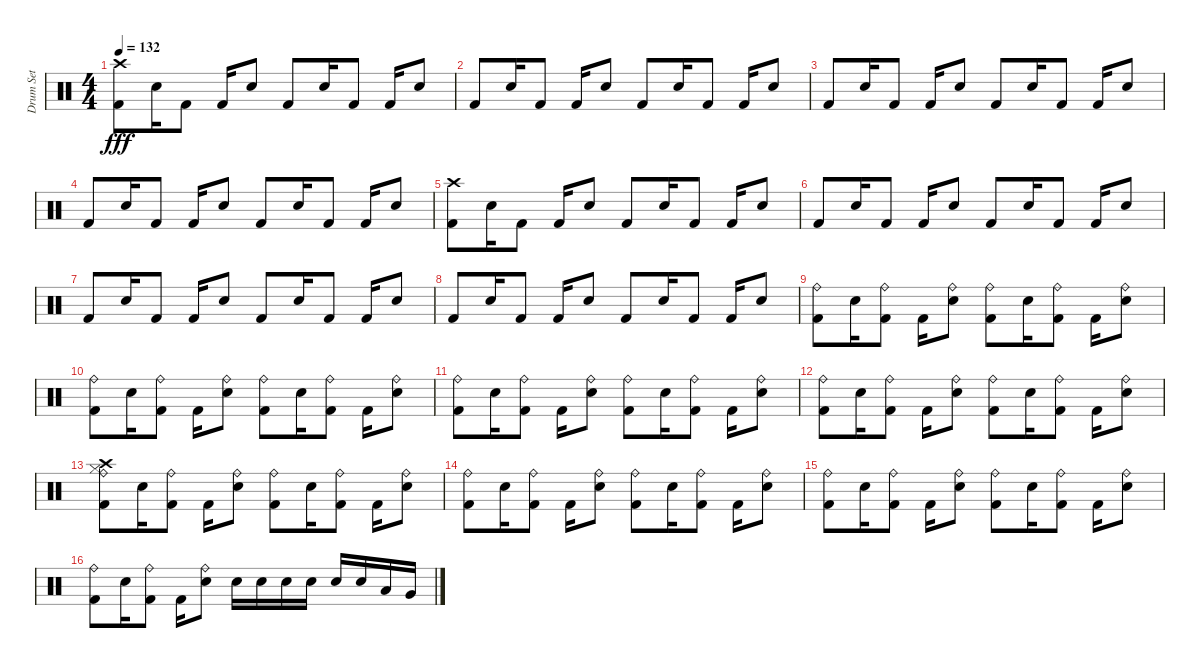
\track ("Drum Set" "Drum Set") {instrument percussion}
\staff {score}
\articulation defaults
\ts (4 4)
\tempo 132
\clef neutral
\ks c
("Kick (hit) 2" "Crash high (hit)").8{dy fff} "Electric Snare (hit)".16 "Kick (hit) 2".8 "Kick (hit) 2".16 "Electric Snare (hit)".8 "Kick (hit) 2".8 "Electric Snare (hit)".16 "Kick (hit) 2".8 "Kick (hit) 2".16 "Electric Snare (hit)".8 |
"Kick (hit) 2".8 "Electric Snare (hit)".16 "Kick (hit) 2".8 "Kick (hit) 2".16 "Electric Snare (hit)".8 "Kick (hit) 2".8 "Electric Snare (hit)".16 "Kick (hit) 2".8 "Kick (hit) 2".16 "Electric Snare (hit)".8 |
"Kick (hit) 2".8 "Electric Snare (hit)".16 "Kick (hit) 2".8 "Kick (hit) 2".16 "Electric Snare (hit)".8 "Kick (hit) 2".8 "Electric Snare (hit)".16 "Kick (hit) 2".8 "Kick (hit) 2".16 "Electric Snare (hit)".8 |
"Kick (hit) 2".8 "Electric Snare (hit)".16 "Kick (hit) 2".8 "Kick (hit) 2".16 "Electric Snare (hit)".8 "Kick (hit) 2".8 "Electric Snare (hit)".16 "Kick (hit) 2".8 "Kick (hit) 2".16 "Electric Snare (hit)".8 |
("Kick (hit) 2" "Crash high (hit)").8 "Electric Snare (hit)".16 "Kick (hit) 2".8 "Kick (hit) 2".16 "Electric Snare (hit)".8 "Kick (hit) 2".8 "Electric Snare (hit)".16 "Kick (hit) 2".8 "Kick (hit) 2".16 "Electric Snare (hit)".8 |
"Kick (hit) 2".8 "Electric Snare (hit)".16 "Kick (hit) 2".8 "Kick (hit) 2".16 "Electric Snare (hit)".8 "Kick (hit) 2".8 "Electric Snare (hit)".16 "Kick (hit) 2".8 "Kick (hit) 2".16 "Electric Snare (hit)".8 |
"Kick (hit) 2".8 "Electric Snare (hit)".16 "Kick (hit) 2".8 "Kick (hit) 2".16 "Electric Snare (hit)".8 "Kick (hit) 2".8 "Electric Snare (hit)".16 "Kick (hit) 2".8 "Kick (hit) 2".16 "Electric Snare (hit)".8 |
"Kick (hit) 2".8 "Electric Snare (hit)".16 "Kick (hit) 2".8 "Kick (hit) 2".16 "Electric Snare (hit)".8 "Kick (hit) 2".8 "Electric Snare (hit)".16 "Kick (hit) 2".8 "Kick (hit) 2".16 "Electric Snare (hit)".8 |
("Kick (hit) 2" "Ride (bell)").8 "Electric Snare (hit)".16 ("Ride (bell)" "Kick (hit) 2").8 "Kick (hit) 2".16 ("Electric Snare (hit)" "Ride (bell)").8 ("Kick (hit) 2" "Ride (bell)").8 "Electric Snare (hit)".16 ("Ride (bell)" "Kick (hit) 2").8 "Kick (hit) 2".16 ("Electric Snare (hit)" "Ride (bell)").8 |
("Kick (hit) 2" "Ride (bell)").8 "Electric Snare (hit)".16 ("Ride (bell)" "Kick (hit) 2").8 "Kick (hit) 2".16 ("Electric Snare (hit)" "Ride (bell)").8 ("Kick (hit) 2" "Ride (bell)").8 "Electric Snare (hit)".16 ("Ride (bell)" "Kick (hit) 2").8 "Kick (hit) 2".16 ("Electric Snare (hit)" "Ride (bell)").8 |
("Kick (hit) 2" "Ride (bell)").8 "Electric Snare (hit)".16 ("Ride (bell)" "Kick (hit) 2").8 "Kick (hit) 2".16 ("Electric Snare (hit)" "Ride (bell)").8 ("Kick (hit) 2" "Ride (bell)").8 "Electric Snare (hit)".16 ("Ride (bell)" "Kick (hit) 2").8 "Kick (hit) 2".16 ("Electric Snare (hit)" "Ride (bell)").8 |
("Kick (hit) 2" "Ride (bell)").8 "Electric Snare (hit)".16 ("Ride (bell)" "Kick (hit) 2").8 "Kick (hit) 2".16 ("Electric Snare (hit)" "Ride (bell)").8 ("Kick (hit) 2" "Ride (bell)").8 "Electric Snare (hit)".16 ("Ride (bell)" "Kick (hit) 2").8 "Kick (hit) 2".16 ("Electric Snare (hit)" "Ride (bell)").8 |
("Kick (hit) 2" "Hi-Hat (closed)" "Ride (bell)" "Crash high (hit)").8 "Electric Snare (hit)".16 ("Ride (bell)" "Kick (hit) 2").8 "Kick (hit) 2".16 ("Electric Snare (hit)" "Ride (bell)").8 ("Kick (hit) 2" "Ride (bell)").8 "Electric Snare (hit)".16 ("Ride (bell)" "Kick (hit) 2").8 "Kick (hit) 2".16 ("Electric Snare (hit)" "Ride (bell)").8 |
("Kick (hit) 2" "Ride (bell)").8 "Electric Snare (hit)".16 ("Ride (bell)" "Kick (hit) 2").8 "Kick (hit) 2".16 ("Electric Snare (hit)" "Ride (bell)").8 ("Kick (hit) 2" "Ride (bell)").8 "Electric Snare (hit)".16 ("Ride (bell)" "Kick (hit) 2").8 "Kick (hit) 2".16 ("Electric Snare (hit)" "Ride (bell)").8 |
("Kick (hit) 2" "Ride (bell)").8 "Electric Snare (hit)".16 ("Ride (bell)" "Kick (hit) 2").8 "Kick (hit) 2".16 ("Electric Snare (hit)" "Ride (bell)").8 ("Kick (hit) 2" "Ride (bell)").8 "Electric Snare (hit)".16 ("Ride (bell)" "Kick (hit) 2").8 "Kick (hit) 2".16 ("Electric Snare (hit)" "Ride (bell)").8 |
("Kick (hit) 2" "Ride (bell)").8 "Electric Snare (hit)".16 ("Ride (bell)" "Kick (hit) 2").8 "Kick (hit) 2".16 ("Ride (bell)" "Electric Snare (hit)").8 "Electric Snare (hit)".16 "Electric Snare (hit)".16 "Electric Snare (hit)".16 "Electric Snare (hit)".16 "Electric Snare (hit)".16 "Electric Snare (hit)".16 "Low Tom (hit)".16 "Very Low Tom (hit)".16
